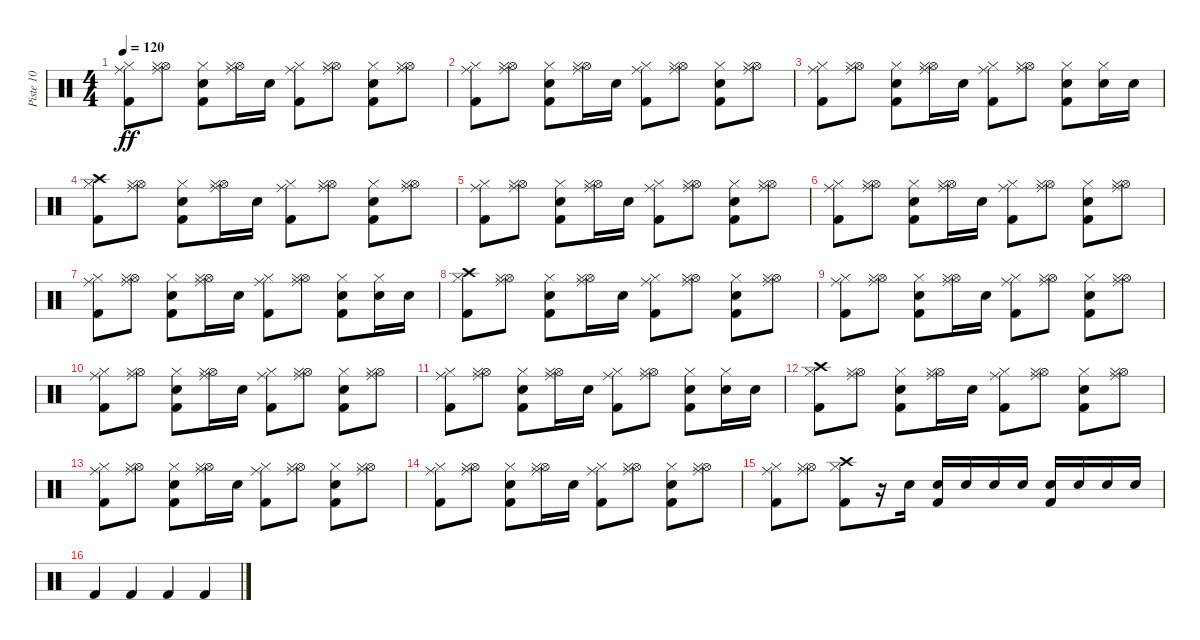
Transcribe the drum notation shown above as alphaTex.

\track ("Piste 10" "Piste 10") {instrument percussion}
\staff {score}
\articulation defaults
\ts (4 4)
\tempo 120
\clef neutral
\ks c
("Kick (hit) 2" "Ride (middle)" "Hi-Hat (closed)").8{dy ff} ("Ride (middle)" "Hi-Hat (open)" "Hi-Hat (closed)").8 ("Kick (hit) 2" "Snare (hit) 2" "Hi-Hat (closed)").8 ("Ride (middle)" "Hi-Hat (open)" "Hi-Hat (closed)").16 "Snare (hit) 2".16 ("Kick (hit) 2" "Ride (middle)" "Hi-Hat (closed)").8 ("Ride (middle)" "Hi-Hat (open)" "Hi-Hat (closed)").8 ("Kick (hit) 2" "Snare (hit) 2" "Hi-Hat (closed)").8 ("Ride (middle)" "Hi-Hat (open)" "Hi-Hat (closed)").8 |
("Kick (hit) 2" "Ride (middle)" "Hi-Hat (closed)").8 ("Ride (middle)" "Hi-Hat (open)" "Hi-Hat (closed)").8 ("Kick (hit) 2" "Snare (hit) 2" "Hi-Hat (closed)").8 ("Ride (middle)" "Hi-Hat (open)" "Hi-Hat (closed)").16 "Snare (hit) 2".16 ("Kick (hit) 2" "Ride (middle)" "Hi-Hat (closed)").8 ("Ride (middle)" "Hi-Hat (open)" "Hi-Hat (closed)").8 ("Kick (hit) 2" "Snare (hit) 2" "Hi-Hat (closed)").8 ("Ride (middle)" "Hi-Hat (open)" "Hi-Hat (closed)").8 |
("Kick (hit) 2" "Ride (middle)" "Hi-Hat (closed)").8 ("Ride (middle)" "Hi-Hat (open)" "Hi-Hat (closed)").8 ("Kick (hit) 2" "Snare (hit) 2" "Hi-Hat (closed)").8 ("Ride (middle)" "Hi-Hat (open)" "Hi-Hat (closed)").16 "Snare (hit) 2".16 ("Kick (hit) 2" "Ride (middle)" "Hi-Hat (closed)").8 ("Ride (middle)" "Hi-Hat (open)" "Hi-Hat (closed)").8 ("Kick (hit) 2" "Snare (hit) 2" "Hi-Hat (closed)").8 ("Snare (hit) 2" "Hi-Hat (closed)").16 "Snare (hit) 2".16 |
("Kick (hit) 2" "Crash high (hit)" "Hi-Hat (closed)").8 ("Ride (middle)" "Hi-Hat (open)" "Hi-Hat (closed)").8 ("Kick (hit) 2" "Snare (hit) 2" "Hi-Hat (closed)").8 ("Ride (middle)" "Hi-Hat (open)" "Hi-Hat (closed)").16 "Snare (hit) 2".16 ("Kick (hit) 2" "Ride (middle)" "Hi-Hat (closed)").8 ("Ride (middle)" "Hi-Hat (open)" "Hi-Hat (closed)").8 ("Kick (hit) 2" "Snare (hit) 2" "Hi-Hat (closed)").8 ("Ride (middle)" "Hi-Hat (open)" "Hi-Hat (closed)").8 |
("Kick (hit) 2" "Ride (middle)" "Hi-Hat (closed)").8 ("Ride (middle)" "Hi-Hat (open)" "Hi-Hat (closed)").8 ("Kick (hit) 2" "Snare (hit) 2" "Hi-Hat (closed)").8 ("Ride (middle)" "Hi-Hat (open)" "Hi-Hat (closed)").16 "Snare (hit) 2".16 ("Kick (hit) 2" "Ride (middle)" "Hi-Hat (closed)").8 ("Ride (middle)" "Hi-Hat (open)" "Hi-Hat (closed)").8 ("Kick (hit) 2" "Snare (hit) 2" "Hi-Hat (closed)").8 ("Ride (middle)" "Hi-Hat (open)" "Hi-Hat (closed)").8 |
("Kick (hit) 2" "Ride (middle)" "Hi-Hat (closed)").8 ("Ride (middle)" "Hi-Hat (open)" "Hi-Hat (closed)").8 ("Kick (hit) 2" "Snare (hit) 2" "Hi-Hat (closed)").8 ("Ride (middle)" "Hi-Hat (open)" "Hi-Hat (closed)").16 "Snare (hit) 2".16 ("Kick (hit) 2" "Ride (middle)" "Hi-Hat (closed)").8 ("Ride (middle)" "Hi-Hat (open)" "Hi-Hat (closed)").8 ("Kick (hit) 2" "Snare (hit) 2" "Hi-Hat (closed)").8 ("Ride (middle)" "Hi-Hat (open)" "Hi-Hat (closed)").8 |
("Kick (hit) 2" "Ride (middle)" "Hi-Hat (closed)").8 ("Ride (middle)" "Hi-Hat (open)" "Hi-Hat (closed)").8 ("Kick (hit) 2" "Snare (hit) 2" "Hi-Hat (closed)").8 ("Ride (middle)" "Hi-Hat (open)" "Hi-Hat (closed)").16 "Snare (hit) 2".16 ("Kick (hit) 2" "Ride (middle)" "Hi-Hat (closed)").8 ("Ride (middle)" "Hi-Hat (open)" "Hi-Hat (closed)").8 ("Kick (hit) 2" "Snare (hit) 2" "Hi-Hat (closed)").8 ("Snare (hit) 2" "Hi-Hat (closed)").16 "Snare (hit) 2".16 |
("Kick (hit) 2" "Crash high (hit)" "Hi-Hat (closed)").8 ("Ride (middle)" "Hi-Hat (open)" "Hi-Hat (closed)").8 ("Kick (hit) 2" "Snare (hit) 2" "Hi-Hat (closed)").8 ("Ride (middle)" "Hi-Hat (open)" "Hi-Hat (closed)").16 "Snare (hit) 2".16 ("Kick (hit) 2" "Ride (middle)" "Hi-Hat (closed)").8 ("Ride (middle)" "Hi-Hat (open)" "Hi-Hat (closed)").8 ("Kick (hit) 2" "Snare (hit) 2" "Hi-Hat (closed)").8 ("Ride (middle)" "Hi-Hat (open)" "Hi-Hat (closed)").8 |
("Kick (hit) 2" "Ride (middle)" "Hi-Hat (closed)").8 ("Ride (middle)" "Hi-Hat (open)" "Hi-Hat (closed)").8 ("Kick (hit) 2" "Snare (hit) 2" "Hi-Hat (closed)").8 ("Ride (middle)" "Hi-Hat (open)" "Hi-Hat (closed)").16 "Snare (hit) 2".16 ("Kick (hit) 2" "Ride (middle)" "Hi-Hat (closed)").8 ("Ride (middle)" "Hi-Hat (open)" "Hi-Hat (closed)").8 ("Kick (hit) 2" "Snare (hit) 2" "Hi-Hat (closed)").8 ("Ride (middle)" "Hi-Hat (open)" "Hi-Hat (closed)").8 |
("Kick (hit) 2" "Ride (middle)" "Hi-Hat (closed)").8 ("Ride (middle)" "Hi-Hat (open)" "Hi-Hat (closed)").8 ("Kick (hit) 2" "Snare (hit) 2" "Hi-Hat (closed)").8 ("Ride (middle)" "Hi-Hat (open)" "Hi-Hat (closed)").16 "Snare (hit) 2".16 ("Kick (hit) 2" "Ride (middle)" "Hi-Hat (closed)").8 ("Ride (middle)" "Hi-Hat (open)" "Hi-Hat (closed)").8 ("Kick (hit) 2" "Snare (hit) 2" "Hi-Hat (closed)").8 ("Ride (middle)" "Hi-Hat (open)" "Hi-Hat (closed)").8 |
("Kick (hit) 2" "Ride (middle)" "Hi-Hat (closed)").8 ("Ride (middle)" "Hi-Hat (open)" "Hi-Hat (closed)").8 ("Kick (hit) 2" "Snare (hit) 2" "Hi-Hat (closed)").8 ("Ride (middle)" "Hi-Hat (open)" "Hi-Hat (closed)").16 "Snare (hit) 2".16 ("Kick (hit) 2" "Ride (middle)" "Hi-Hat (closed)").8 ("Ride (middle)" "Hi-Hat (open)" "Hi-Hat (closed)").8 ("Kick (hit) 2" "Snare (hit) 2" "Hi-Hat (closed)").8 ("Snare (hit) 2" "Hi-Hat (closed)").16 "Snare (hit) 2".16 |
("Kick (hit) 2" "Crash high (hit)" "Hi-Hat (closed)").8 ("Ride (middle)" "Hi-Hat (open)" "Hi-Hat (closed)").8 ("Kick (hit) 2" "Snare (hit) 2" "Hi-Hat (closed)").8 ("Ride (middle)" "Hi-Hat (open)" "Hi-Hat (closed)").16 "Snare (hit) 2".16 ("Kick (hit) 2" "Ride (middle)" "Hi-Hat (closed)").8 ("Ride (middle)" "Hi-Hat (open)" "Hi-Hat (closed)").8 ("Kick (hit) 2" "Snare (hit) 2" "Hi-Hat (closed)").8 ("Ride (middle)" "Hi-Hat (open)" "Hi-Hat (closed)").8 |
("Kick (hit) 2" "Ride (middle)" "Hi-Hat (closed)").8 ("Ride (middle)" "Hi-Hat (open)" "Hi-Hat (closed)").8 ("Kick (hit) 2" "Snare (hit) 2" "Hi-Hat (closed)").8 ("Ride (middle)" "Hi-Hat (open)" "Hi-Hat (closed)").16 "Snare (hit) 2".16 ("Kick (hit) 2" "Ride (middle)" "Hi-Hat (closed)").8 ("Ride (middle)" "Hi-Hat (open)" "Hi-Hat (closed)").8 ("Kick (hit) 2" "Snare (hit) 2" "Hi-Hat (closed)").8 ("Ride (middle)" "Hi-Hat (open)" "Hi-Hat (closed)").8 |
("Kick (hit) 2" "Ride (middle)" "Hi-Hat (closed)").8 ("Ride (middle)" "Hi-Hat (open)" "Hi-Hat (closed)").8 ("Kick (hit) 2" "Snare (hit) 2" "Hi-Hat (closed)").8 ("Ride (middle)" "Hi-Hat (open)" "Hi-Hat (closed)").16 "Snare (hit) 2".16 ("Kick (hit) 2" "Ride (middle)" "Hi-Hat (closed)").8 ("Ride (middle)" "Hi-Hat (open)" "Hi-Hat (closed)").8 ("Kick (hit) 2" "Snare (hit) 2" "Hi-Hat (closed)").8 ("Ride (middle)" "Hi-Hat (open)" "Hi-Hat (closed)").8 |
("Kick (hit) 2" "Ride (middle)" "Hi-Hat (closed)").8 ("Ride (middle)" "Hi-Hat (open)" "Hi-Hat (closed)").8 ("Kick (hit) 2" "Crash high (hit)" "Hi-Hat (closed)").8 r.16 "Snare (hit) 2".16 ("Kick (hit) 2" "Snare (hit) 2").16 "Snare (hit) 2".16 "Snare (hit) 2".16 "Snare (hit) 2".16 ("Kick (hit) 2" "Snare (hit) 2").16 "Snare (hit) 2".16 "Snare (hit) 2".16 "Snare (hit) 2".16 |
"Kick (hit) 2".4 "Kick (hit) 2".4 "Kick (hit) 2".4 "Kick (hit) 2".4
